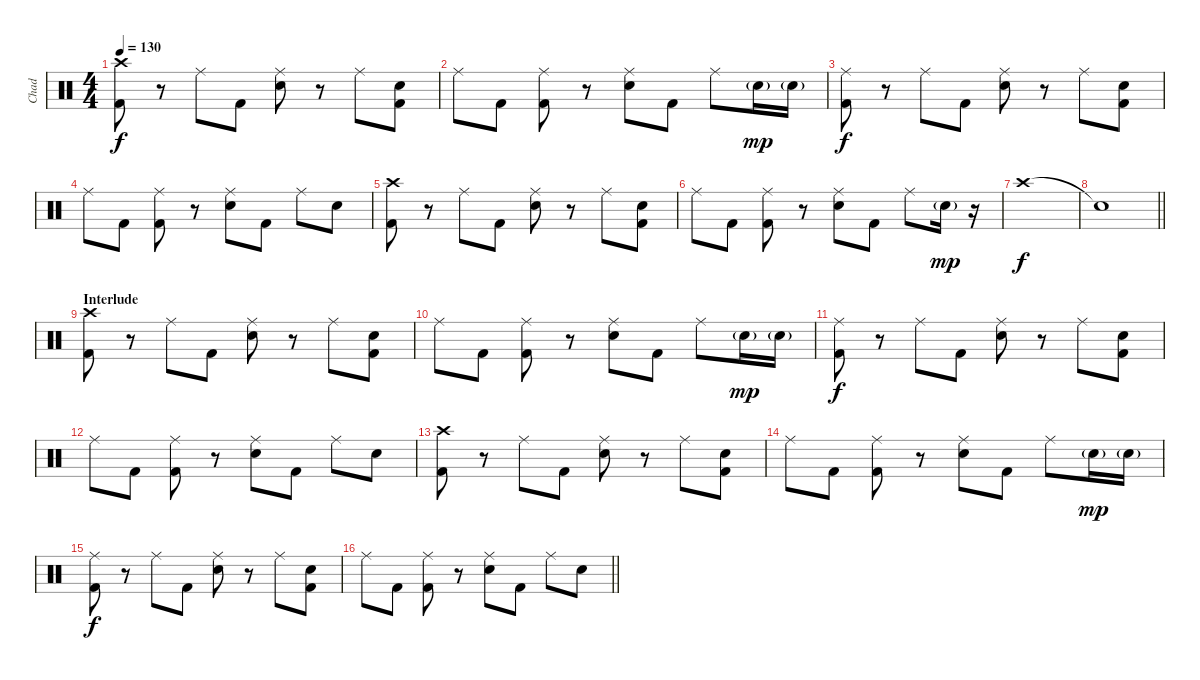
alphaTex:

\track ("Chad" "Chad") {instrument percussion}
\staff {score}
\articulation defaults
\ts (4 4)
\tempo 130
\clef neutral
\ks c
("Crash high (hit)" "Kick (hit) 2").8{dy f} r.8 "Ride (middle)".8 "Kick (hit) 2".8 ("Ride (middle)" "Electric Snare (hit)").8 r.8 "Ride (middle)".8 ("Electric Snare (hit)" "Kick (hit) 2").8 |
"Ride (middle)".8 "Kick (hit) 2".8 ("Ride (middle)" "Kick (hit) 2").8 r.8 ("Ride (middle)" "Electric Snare (hit)").8 "Kick (hit) 2".8 "Ride (middle)".8 "Electric Snare (hit)"{g}.16{dy mp} "Electric Snare (hit)"{g}.16 |
("Ride (middle)" "Kick (hit) 2").8{dy f} r.8 "Ride (middle)".8 "Kick (hit) 2".8 ("Ride (middle)" "Electric Snare (hit)").8 r.8 "Ride (middle)".8 ("Electric Snare (hit)" "Kick (hit) 2").8 |
"Ride (middle)".8 "Kick (hit) 2".8 ("Ride (middle)" "Kick (hit) 2").8 r.8 ("Ride (middle)" "Electric Snare (hit)").8 "Kick (hit) 2".8 "Ride (middle)".8 "Electric Snare (hit)".8 |
("Crash high (hit)" "Kick (hit) 2").8 r.8 "Ride (middle)".8 "Kick (hit) 2".8 ("Ride (middle)" "Electric Snare (hit)").8 r.8 "Ride (middle)".8 ("Electric Snare (hit)" "Kick (hit) 2").8 |
"Ride (middle)".8 "Kick (hit) 2".8 ("Ride (middle)" "Kick (hit) 2").8 r.8 ("Ride (middle)" "Electric Snare (hit)").8 "Kick (hit) 2".8 "Ride (middle)".8 "Electric Snare (hit)"{g}.16{dy mp} r.16 |
"Crash high (hit)".1{dy f} |
\barLineRight lightlight "Snare (hit)"{t}.1
|
\section ("" "Interlude")
("Crash high (hit)" "Kick (hit) 2").8 r.8 "Ride (middle)".8 "Kick (hit) 2".8 ("Ride (middle)" "Electric Snare (hit)").8 r.8 "Ride (middle)".8 ("Electric Snare (hit)" "Kick (hit) 2").8 |
"Ride (middle)".8 "Kick (hit) 2".8 ("Ride (middle)" "Kick (hit) 2").8 r.8 ("Ride (middle)" "Electric Snare (hit)").8 "Kick (hit) 2".8 "Ride (middle)".8 "Electric Snare (hit)"{g}.16{dy mp} "Electric Snare (hit)"{g}.16 |
("Ride (middle)" "Kick (hit) 2").8{dy f} r.8 "Ride (middle)".8 "Kick (hit) 2".8 ("Ride (middle)" "Electric Snare (hit)").8 r.8 "Ride (middle)".8 ("Electric Snare (hit)" "Kick (hit) 2").8 |
"Ride (middle)".8 "Kick (hit) 2".8 ("Ride (middle)" "Kick (hit) 2").8 r.8 ("Ride (middle)" "Electric Snare (hit)").8 "Kick (hit) 2".8 "Ride (middle)".8 "Electric Snare (hit)".8 |
("Crash high (hit)" "Kick (hit) 2").8 r.8 "Ride (middle)".8 "Kick (hit) 2".8 ("Ride (middle)" "Electric Snare (hit)").8 r.8 "Ride (middle)".8 ("Electric Snare (hit)" "Kick (hit) 2").8 |
"Ride (middle)".8 "Kick (hit) 2".8 ("Ride (middle)" "Kick (hit) 2").8 r.8 ("Ride (middle)" "Electric Snare (hit)").8 "Kick (hit) 2".8 "Ride (middle)".8 "Electric Snare (hit)"{g}.16{dy mp} "Electric Snare (hit)"{g}.16 |
("Ride (middle)" "Kick (hit) 2").8{dy f} r.8 "Ride (middle)".8 "Kick (hit) 2".8 ("Ride (middle)" "Electric Snare (hit)").8 r.8 "Ride (middle)".8 ("Electric Snare (hit)" "Kick (hit) 2").8 |
\barLineRight lightlight "Ride (middle)".8 "Kick (hit) 2".8
("Ride (middle)" "Kick (hit) 2").8 r.8 ("Ride (middle)" "Electric Snare (hit)").8 "Kick (hit) 2".8 "Ride (middle)".8 "Electric Snare (hit)".8
